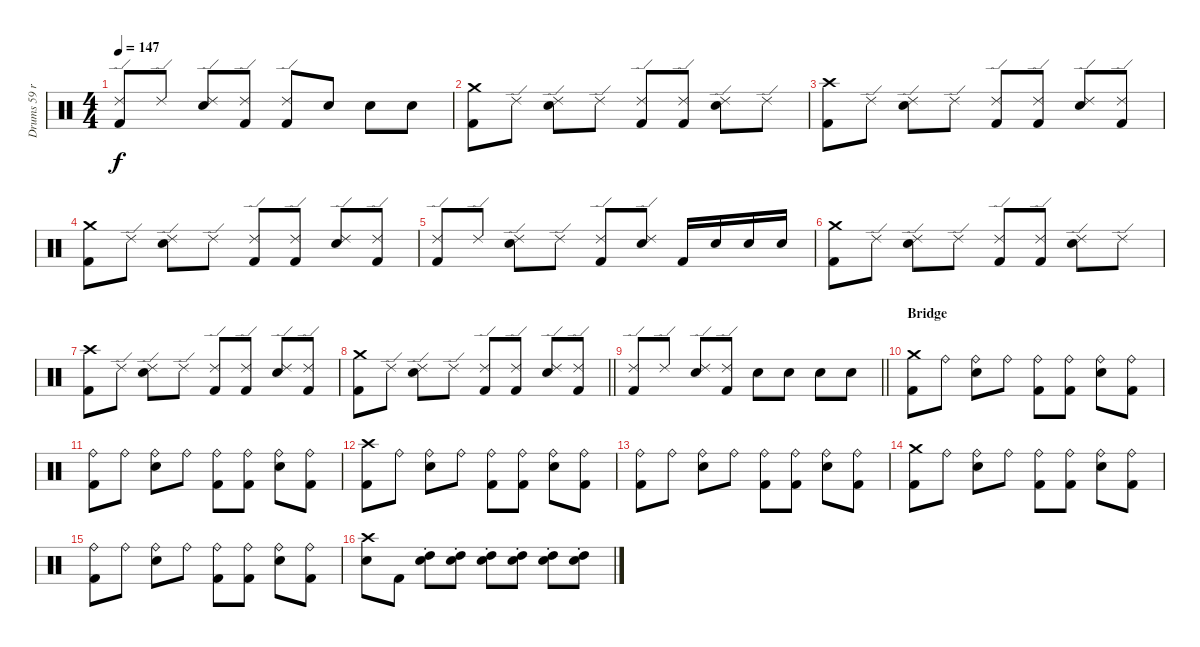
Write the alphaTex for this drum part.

\track ("Drums 59 ride" "Drums 59 r") {mute instrument percussion}
\staff {score}
\articulation defaults
\ts (4 4)
\tempo 147
\clef neutral
\ks c
("Ride (edge) 2" "Kick (hit) 2").8{dy f} "Ride (edge) 2".8 ("Ride (edge) 2" "Snare (hit) 2").8 ("Ride (edge) 2" "Kick (hit) 2").8 ("Ride (edge) 2" "Kick (hit) 2").8 "Snare (hit) 2".8 "Snare (hit) 2".8 "Snare (hit) 2".8 |
("Crash medium (hit)" "Kick (hit) 2").8 "Ride (edge) 2".8 ("Ride (edge) 2" "Snare (hit) 2").8 "Ride (edge) 2".8 ("Ride (edge) 2" "Kick (hit) 2").8 ("Ride (edge) 2" "Kick (hit) 2").8 ("Ride (edge) 2" "Snare (hit) 2").8 "Ride (edge) 2".8 |
("Crash high (hit)" "Kick (hit) 2").8 "Ride (edge) 2".8 ("Ride (edge) 2" "Snare (hit) 2").8 "Ride (edge) 2".8 ("Ride (edge) 2" "Kick (hit) 2").8 ("Ride (edge) 2" "Kick (hit) 2").8 ("Ride (edge) 2" "Snare (hit) 2").8 ("Ride (edge) 2" "Kick (hit) 2").8 |
("Crash medium (hit)" "Kick (hit) 2").8 "Ride (edge) 2".8 ("Ride (edge) 2" "Snare (hit) 2").8 "Ride (edge) 2".8 ("Ride (edge) 2" "Kick (hit) 2").8 ("Ride (edge) 2" "Kick (hit) 2").8 ("Ride (edge) 2" "Snare (hit) 2").8 ("Ride (edge) 2" "Kick (hit) 2").8 |
("Ride (edge) 2" "Kick (hit) 2").8 "Ride (edge) 2".8 ("Ride (edge) 2" "Snare (hit) 2").8 "Ride (edge) 2".8 ("Ride (edge) 2" "Kick (hit) 2").8 ("Ride (edge) 2" "Snare (hit) 2").8 "Kick (hit) 2".16 "Snare (hit) 2".16 "Snare (hit) 2".16 "Snare (hit) 2".16 |
("Crash medium (hit)" "Kick (hit) 2").8 "Ride (edge) 2".8 ("Ride (edge) 2" "Snare (hit) 2").8 "Ride (edge) 2".8 ("Ride (edge) 2" "Kick (hit) 2").8 ("Ride (edge) 2" "Kick (hit) 2").8 ("Ride (edge) 2" "Snare (hit) 2").8 "Ride (edge) 2".8 |
("Crash high (hit)" "Kick (hit) 2").8 "Ride (edge) 2".8 ("Ride (edge) 2" "Snare (hit) 2").8 "Ride (edge) 2".8 ("Ride (edge) 2" "Kick (hit) 2").8 ("Ride (edge) 2" "Kick (hit) 2").8 ("Ride (edge) 2" "Snare (hit) 2").8 ("Ride (edge) 2" "Kick (hit) 2").8 |
\barLineRight lightlight
("Crash medium (hit)" "Kick (hit) 2").8 "Ride (edge) 2".8 ("Ride (edge) 2" "Snare (hit) 2").8 "Ride (edge) 2".8 ("Ride (edge) 2" "Kick (hit) 2").8 ("Ride (edge) 2" "Kick (hit) 2").8 ("Ride (edge) 2" "Snare (hit) 2").8 ("Ride (edge) 2" "Kick (hit) 2").8 |
\barLineRight lightlight
("Ride (edge) 2" "Kick (hit) 2").8 "Ride (edge) 2".8 ("Ride (edge) 2" "Snare (hit) 2").8 ("Ride (edge) 2" "Kick (hit) 2").8 "Snare (hit) 2".8 "Snare (hit) 2".8 "Snare (hit) 2".8 "Snare (hit) 2".8 |
\section ("" "Bridge")
("Crash medium (hit)" "Kick (hit) 2").8 "Ride (bell)".8 ("Ride (bell)" "Snare (hit) 2").8 "Ride (bell)".8 ("Ride (bell)" "Kick (hit) 2").8 ("Ride (bell)" "Kick (hit) 2").8 ("Ride (bell)" "Snare (hit) 2").8 ("Ride (bell)" "Kick (hit) 2").8 |
("Ride (bell)" "Kick (hit) 2").8 "Ride (bell)".8 ("Ride (bell)" "Snare (hit) 2").8 "Ride (bell)".8 ("Ride (bell)" "Kick (hit) 2").8 ("Ride (bell)" "Kick (hit) 2").8 ("Ride (bell)" "Snare (hit) 2").8 ("Ride (bell)" "Kick (hit) 2").8 |
("Crash high (hit)" "Kick (hit) 2").8 "Ride (bell)".8 ("Ride (bell)" "Snare (hit) 2").8 "Ride (bell)".8 ("Ride (bell)" "Kick (hit) 2").8 ("Ride (bell)" "Kick (hit) 2").8 ("Ride (bell)" "Snare (hit) 2").8 ("Ride (bell)" "Kick (hit) 2").8 |
("Ride (bell)" "Kick (hit) 2").8 "Ride (bell)".8 ("Ride (bell)" "Snare (hit) 2").8 "Ride (bell)".8 ("Ride (bell)" "Kick (hit) 2").8 ("Ride (bell)" "Kick (hit) 2").8 ("Ride (bell)" "Snare (hit) 2").8 ("Ride (bell)" "Kick (hit) 2").8 |
("Crash medium (hit)" "Kick (hit) 2").8 "Ride (bell)".8 ("Ride (bell)" "Snare (hit) 2").8 "Ride (bell)".8 ("Ride (bell)" "Kick (hit) 2").8 ("Ride (bell)" "Kick (hit) 2").8 ("Ride (bell)" "Snare (hit) 2").8 ("Ride (bell)" "Kick (hit) 2").8 |
("Ride (bell)" "Kick (hit) 2").8 "Ride (bell)".8 ("Ride (bell)" "Snare (hit) 2").8 "Ride (bell)".8 ("Ride (bell)" "Kick (hit) 2").8 ("Ride (bell)" "Kick (hit) 2").8 ("Ride (bell)" "Snare (hit) 2").8 ("Ride (bell)" "Kick (hit) 2").8 |
("Crash high (hit)" "Snare (hit) 2").8 "Kick (hit) 2".8 ("High Tom (hit)" "Snare (hit) 2"{st}).8 ("High Tom (hit)" "Snare (hit) 2"{st}).8 ("High Tom (hit)" "Snare (hit) 2"{st}).8 ("High Tom (hit)" "Snare (hit) 2"{st}).8 ("High Tom (hit)" "Snare (hit) 2"{st}).8 ("High Tom (hit)" "Snare (hit) 2"{st}).8
